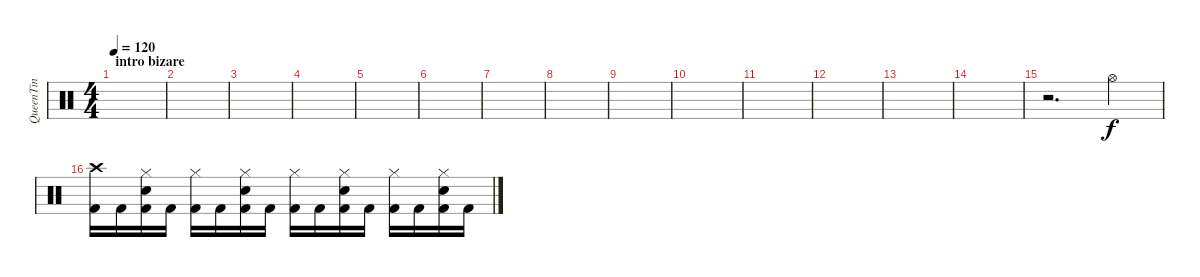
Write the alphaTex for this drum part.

\track ("QueenTin" "QueenTin") {instrument percussion}
\staff {score}
\articulation defaults
\ts (4 4)
\section ("" "intro bizare")
\tempo 120
\clef neutral
\ks c
|
|
|
|
|
|
|
|
|
|
|
|
|
|
r.2{d} "Hi-Hat (open)".4 |
("Crash high (hit)" "Kick (hit) 2").16 "Kick (hit) 2".16 ("Hi-Hat (closed)" "Snare (hit) 2" "Kick (hit) 2").16 "Kick (hit) 2".16 ("Hi-Hat (closed)" "Kick (hit) 2").16 "Kick (hit) 2".16 ("Hi-Hat (closed)" "Snare (hit) 2" "Kick (hit) 2").16 "Kick (hit) 2".16 ("Hi-Hat (closed)" "Kick (hit) 2").16 "Kick (hit) 2".16 ("Hi-Hat (closed)" "Snare (hit) 2" "Kick (hit) 2").16 "Kick (hit) 2".16 ("Hi-Hat (closed)" "Kick (hit) 2").16 "Kick (hit) 2".16 ("Hi-Hat (closed)" "Snare (hit) 2" "Kick (hit) 2").16 "Kick (hit) 2".16
